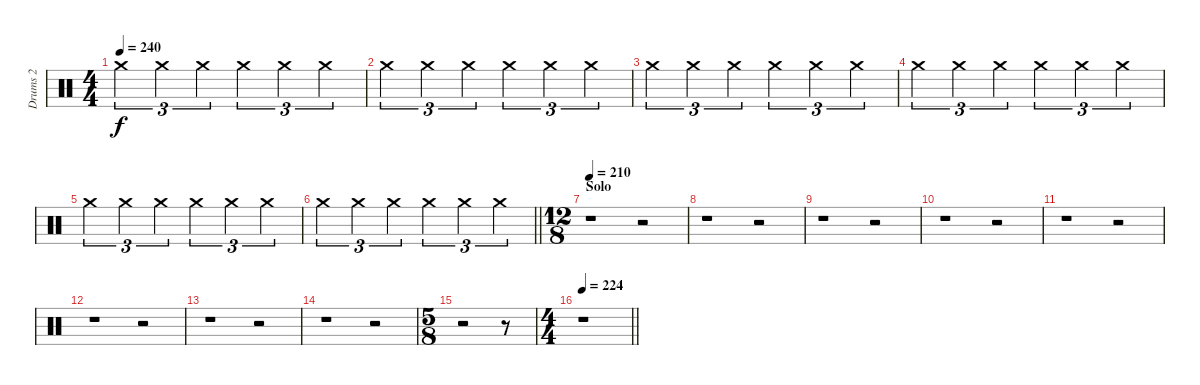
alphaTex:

\track ("Drums 2" "Drums 2") {instrument percussion}
\staff {score}
\articulation defaults
\ts (4 4)
\tempo 240
\clef neutral
\ks c "Crash medium (hit)".4{tu (3 2) dy f} "Crash medium (hit)".4{tu (3 2)} "Crash medium (hit)".4{tu (3 2)} "Crash medium (hit)".4{tu (3 2)} "Crash medium (hit)".4{tu (3 2)} "Crash medium (hit)".4{tu (3 2)}
|
"Crash medium (hit)".4{tu (3 2)} "Crash medium (hit)".4{tu (3 2)} "Crash medium (hit)".4{tu (3 2)} "Crash medium (hit)".4{tu (3 2)} "Crash medium (hit)".4{tu (3 2)} "Crash medium (hit)".4{tu (3 2)} |
"Crash medium (hit)".4{tu (3 2)} "Crash medium (hit)".4{tu (3 2)} "Crash medium (hit)".4{tu (3 2)} "Crash medium (hit)".4{tu (3 2)} "Crash medium (hit)".4{tu (3 2)} "Crash medium (hit)".4{tu (3 2)} |
"Crash medium (hit)".4{tu (3 2)} "Crash medium (hit)".4{tu (3 2)} "Crash medium (hit)".4{tu (3 2)} "Crash medium (hit)".4{tu (3 2)} "Crash medium (hit)".4{tu (3 2)} "Crash medium (hit)".4{tu (3 2)} |
"Crash medium (hit)".4{tu (3 2)} "Crash medium (hit)".4{tu (3 2)} "Crash medium (hit)".4{tu (3 2)} "Crash medium (hit)".4{tu (3 2)} "Crash medium (hit)".4{tu (3 2)} "Crash medium (hit)".4{tu (3 2)} |
\barLineRight lightlight "Crash medium (hit)".4{tu (3 2)} "Crash medium (hit)".4{tu (3 2)} "Crash medium (hit)".4{tu (3 2)} "Crash medium (hit)".4{tu (3 2)} "Crash medium (hit)".4{tu (3 2)} "Crash medium (hit)".4{tu (3 2)}
|
\ts (12 8)
\section ("" "Solo")
\tempo 210
r.1 r.2 |
r.1 r.2 |
r.1 r.2 |
r.1 r.2 |
r.1 r.2 |
r.1 r.2 |
r.1 r.2 |
r.1 r.2 |
\ts (5 8)
r.2 r.8 |
\ts (4 4)
\tempo 224
\barLineRight lightlight
r.1
